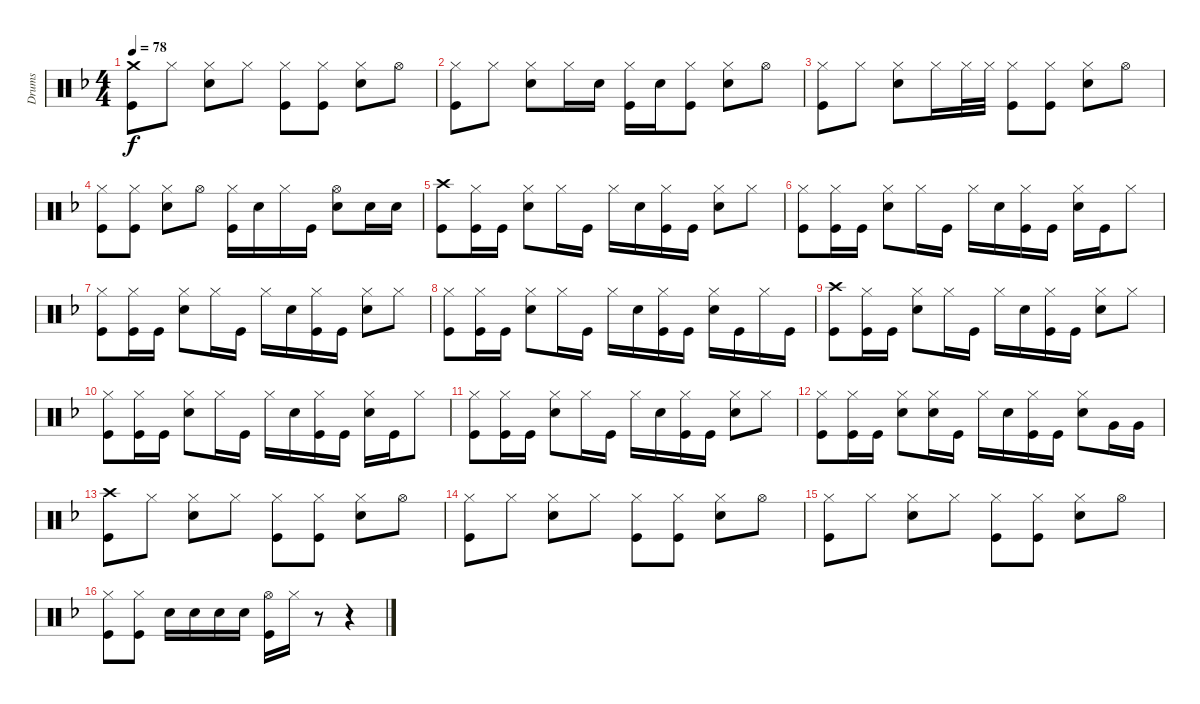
\track ("Drums" "Drums") {instrument percussion}
\staff {score}
\articulation defaults
\ts (4 4)
\tempo 78
\clef neutral
\ks dminor
("Crash medium (hit)" "Kick (hit)").8{dy f} "Hi-Hat (closed)".8 ("Hi-Hat (closed)" "Snare (hit) 2").8 "Hi-Hat (closed)".8 ("Hi-Hat (closed)" "Kick (hit)").8 ("Hi-Hat (closed)" "Kick (hit)").8 ("Hi-Hat (closed)" "Snare (hit) 2").8 "Hi-Hat (open)".8 |
("Hi-Hat (closed)" "Kick (hit)").8 "Hi-Hat (closed)".8 ("Hi-Hat (closed)" "Snare (hit) 2").8 "Hi-Hat (closed)".16 "Snare (hit) 2".16 ("Hi-Hat (closed)" "Kick (hit)").16 "Snare (hit) 2".16 ("Hi-Hat (closed)" "Kick (hit)").8 ("Hi-Hat (closed)" "Snare (hit) 2").8 "Hi-Hat (open)".8 |
("Hi-Hat (closed)" "Kick (hit)").8 "Hi-Hat (closed)".8 ("Hi-Hat (closed)" "Snare (hit) 2").8 "Hi-Hat (closed)".16 "Hi-Hat (closed)".32 "Hi-Hat (closed)".32 ("Hi-Hat (closed)" "Kick (hit)").8 ("Hi-Hat (closed)" "Kick (hit)").8 ("Hi-Hat (closed)" "Snare (hit) 2").8 "Hi-Hat (open)".8 |
("Hi-Hat (closed)" "Kick (hit)").8 ("Hi-Hat (closed)" "Kick (hit)").8 ("Hi-Hat (closed)" "Snare (hit) 2").8 "Hi-Hat (open)".8 ("Hi-Hat (closed)" "Kick (hit)").16 "Snare (hit) 2".16 "Hi-Hat (closed)".16 "Kick (hit)".16 ("Hi-Hat (open)" "Snare (hit) 2").8 "Snare (hit) 2".16 "Snare (hit) 2".16 |
("Crash high (hit)" "Kick (hit)").8 ("Hi-Hat (closed)" "Kick (hit)").16 "Kick (hit)".16 ("Hi-Hat (closed)" "Snare (hit) 2").8 "Hi-Hat (closed)".16 "Kick (hit)".16 "Hi-Hat (closed)".16 "Snare (hit) 2".16 ("Hi-Hat (closed)" "Kick (hit)").16 "Kick (hit)".16 ("Hi-Hat (closed)" "Snare (hit) 2").8 "Hi-Hat (closed)".8 |
("Hi-Hat (closed)" "Kick (hit)").8 ("Hi-Hat (closed)" "Kick (hit)").16 "Kick (hit)".16 ("Hi-Hat (closed)" "Snare (hit) 2").8 "Hi-Hat (closed)".16 "Kick (hit)".16 "Hi-Hat (closed)".16 "Snare (hit) 2".16 ("Hi-Hat (closed)" "Kick (hit)").16 "Kick (hit)".16 ("Hi-Hat (closed)" "Snare (hit) 2").16 "Kick (hit)".16 "Hi-Hat (closed)".8 |
("Hi-Hat (closed)" "Kick (hit)").8 ("Hi-Hat (closed)" "Kick (hit)").16 "Kick (hit)".16 ("Hi-Hat (closed)" "Snare (hit) 2").8 "Hi-Hat (closed)".16 "Kick (hit)".16 "Hi-Hat (closed)".16 "Snare (hit) 2".16 ("Hi-Hat (closed)" "Kick (hit)").16 "Kick (hit)".16 ("Hi-Hat (closed)" "Snare (hit) 2").8 "Hi-Hat (closed)".8 |
("Hi-Hat (closed)" "Kick (hit)").8 ("Hi-Hat (closed)" "Kick (hit)").16 "Kick (hit)".16 ("Hi-Hat (closed)" "Snare (hit) 2").8 "Hi-Hat (closed)".16 "Kick (hit)".16 "Hi-Hat (closed)".16 "Snare (hit) 2".16 ("Hi-Hat (closed)" "Kick (hit)").16 "Kick (hit)".16 ("Hi-Hat (closed)" "Snare (hit) 2").16 "Kick (hit)".16 "Hi-Hat (closed)".16 "Kick (hit)".16 |
("Crash high (hit)" "Kick (hit)").8 ("Hi-Hat (closed)" "Kick (hit)").16 "Kick (hit)".16 ("Hi-Hat (closed)" "Snare (hit) 2").8 "Hi-Hat (closed)".16 "Kick (hit)".16 "Hi-Hat (closed)".16 "Snare (hit) 2".16 ("Hi-Hat (closed)" "Kick (hit)").16 "Kick (hit)".16 ("Hi-Hat (closed)" "Snare (hit) 2").8 "Hi-Hat (closed)".8 |
("Hi-Hat (closed)" "Kick (hit)").8 ("Hi-Hat (closed)" "Kick (hit)").16 "Kick (hit)".16 ("Hi-Hat (closed)" "Snare (hit) 2").8 "Hi-Hat (closed)".16 "Kick (hit)".16 "Hi-Hat (closed)".16 "Snare (hit) 2".16 ("Hi-Hat (closed)" "Kick (hit)").16 "Kick (hit)".16 ("Hi-Hat (closed)" "Snare (hit) 2").16 "Kick (hit)".16 "Hi-Hat (closed)".8 |
("Hi-Hat (closed)" "Kick (hit)").8 ("Hi-Hat (closed)" "Kick (hit)").16 "Kick (hit)".16 ("Hi-Hat (closed)" "Snare (hit) 2").8 "Hi-Hat (closed)".16 "Kick (hit)".16 "Hi-Hat (closed)".16 "Snare (hit) 2".16 ("Hi-Hat (closed)" "Kick (hit)").16 "Kick (hit)".16 ("Hi-Hat (closed)" "Snare (hit) 2").8 "Hi-Hat (closed)".8 |
("Hi-Hat (closed)" "Kick (hit)").8 ("Hi-Hat (closed)" "Kick (hit)").16 "Kick (hit)".16 ("Hi-Hat (closed)" "Snare (hit) 2").8 ("Hi-Hat (closed)" "Snare (hit) 2").16 "Kick (hit)".16 "Hi-Hat (closed)".16 "Snare (hit) 2".16 ("Hi-Hat (closed)" "Kick (hit)").16 "Kick (hit)".16 ("Hi-Hat (closed)" "Snare (hit) 2").8 "Very Low Tom (hit)".16 "Very Low Tom (hit)".16 |
("Crash high (hit)" "Kick (hit)").8 "Hi-Hat (closed)".8 ("Hi-Hat (closed)" "Snare (hit) 2").8 "Hi-Hat (closed)".8 ("Hi-Hat (closed)" "Kick (hit)").8 ("Hi-Hat (closed)" "Kick (hit)").8 ("Hi-Hat (closed)" "Snare (hit) 2").8 "Hi-Hat (open)".8 |
("Hi-Hat (closed)" "Kick (hit)").8 "Hi-Hat (closed)".8 ("Hi-Hat (closed)" "Snare (hit) 2").8 "Hi-Hat (closed)".8 ("Hi-Hat (closed)" "Kick (hit)").8 ("Hi-Hat (closed)" "Kick (hit)").8 ("Hi-Hat (closed)" "Snare (hit) 2").8 "Hi-Hat (open)".8 |
("Hi-Hat (closed)" "Kick (hit)").8 "Hi-Hat (closed)".8 ("Hi-Hat (closed)" "Snare (hit) 2").8 "Hi-Hat (closed)".8 ("Hi-Hat (closed)" "Kick (hit)").8 ("Hi-Hat (closed)" "Kick (hit)").8 ("Hi-Hat (closed)" "Snare (hit) 2").8 "Hi-Hat (open)".8 |
("Hi-Hat (closed)" "Kick (hit)").8 ("Hi-Hat (closed)" "Kick (hit)").8 "Snare (hit) 2".16 "Snare (hit) 2".16 "Snare (hit) 2".16 "Snare (hit) 2".16 ("Hi-Hat (open)" "Kick (hit)").16 "Hi-Hat (closed)".16 r.8 r.4
